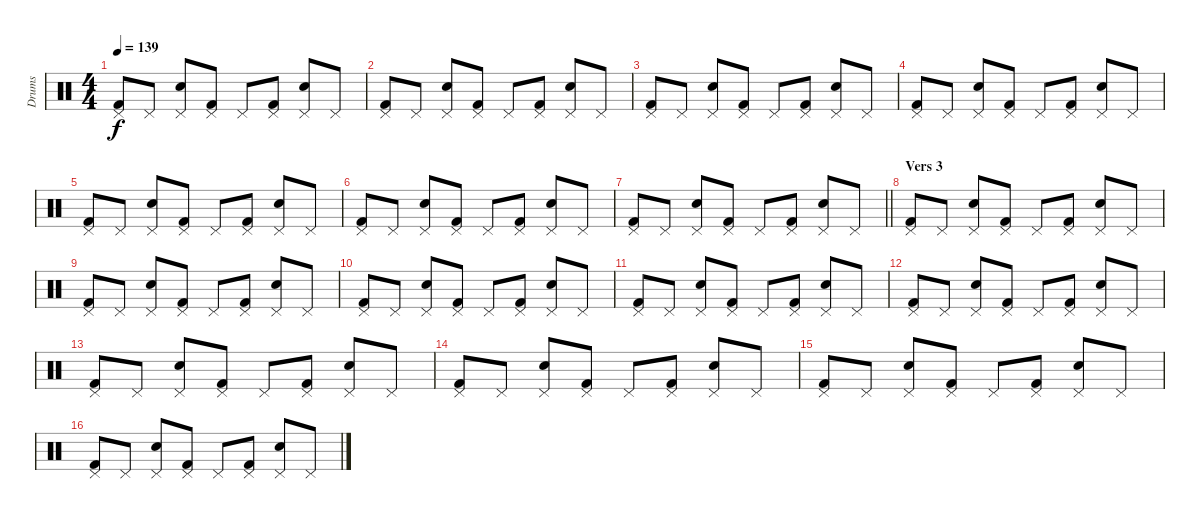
\track ("Drums" "Drums") {instrument percussion}
\staff {score}
\articulation defaults
\ts (4 4)
\tempo 139
\clef neutral
\ks c
("Pedal Hi-Hat (hit)" "Kick (hit) 2").8{dy f} "Pedal Hi-Hat (hit)".8 ("Pedal Hi-Hat (hit)" "Snare (hit) 2").8 ("Pedal Hi-Hat (hit)" "Kick (hit) 2").8 "Pedal Hi-Hat (hit)".8 ("Pedal Hi-Hat (hit)" "Kick (hit) 2").8 ("Pedal Hi-Hat (hit)" "Snare (hit) 2").8 "Pedal Hi-Hat (hit)".8 |
("Pedal Hi-Hat (hit)" "Kick (hit) 2").8 "Pedal Hi-Hat (hit)".8 ("Pedal Hi-Hat (hit)" "Snare (hit) 2").8 ("Pedal Hi-Hat (hit)" "Kick (hit) 2").8 "Pedal Hi-Hat (hit)".8 ("Pedal Hi-Hat (hit)" "Kick (hit) 2").8 ("Pedal Hi-Hat (hit)" "Snare (hit) 2").8 "Pedal Hi-Hat (hit)".8 |
("Pedal Hi-Hat (hit)" "Kick (hit) 2").8 "Pedal Hi-Hat (hit)".8 ("Pedal Hi-Hat (hit)" "Snare (hit) 2").8 ("Pedal Hi-Hat (hit)" "Kick (hit) 2").8 "Pedal Hi-Hat (hit)".8 ("Pedal Hi-Hat (hit)" "Kick (hit) 2").8 ("Pedal Hi-Hat (hit)" "Snare (hit) 2").8 "Pedal Hi-Hat (hit)".8 |
("Pedal Hi-Hat (hit)" "Kick (hit) 2").8 "Pedal Hi-Hat (hit)".8 ("Pedal Hi-Hat (hit)" "Snare (hit) 2").8 ("Pedal Hi-Hat (hit)" "Kick (hit) 2").8 "Pedal Hi-Hat (hit)".8 ("Pedal Hi-Hat (hit)" "Kick (hit) 2").8 ("Pedal Hi-Hat (hit)" "Snare (hit) 2").8 "Pedal Hi-Hat (hit)".8 |
("Pedal Hi-Hat (hit)" "Kick (hit) 2").8 "Pedal Hi-Hat (hit)".8 ("Pedal Hi-Hat (hit)" "Snare (hit) 2").8 ("Pedal Hi-Hat (hit)" "Kick (hit) 2").8 "Pedal Hi-Hat (hit)".8 ("Pedal Hi-Hat (hit)" "Kick (hit) 2").8 ("Pedal Hi-Hat (hit)" "Snare (hit) 2").8 "Pedal Hi-Hat (hit)".8 |
("Pedal Hi-Hat (hit)" "Kick (hit) 2").8 "Pedal Hi-Hat (hit)".8 ("Pedal Hi-Hat (hit)" "Snare (hit) 2").8 ("Pedal Hi-Hat (hit)" "Kick (hit) 2").8 "Pedal Hi-Hat (hit)".8 ("Pedal Hi-Hat (hit)" "Kick (hit) 2").8 ("Pedal Hi-Hat (hit)" "Snare (hit) 2").8 "Pedal Hi-Hat (hit)".8 |
\barLineRight lightlight
("Pedal Hi-Hat (hit)" "Kick (hit) 2").8 "Pedal Hi-Hat (hit)".8 ("Pedal Hi-Hat (hit)" "Snare (hit) 2").8 ("Pedal Hi-Hat (hit)" "Kick (hit) 2").8 "Pedal Hi-Hat (hit)".8 ("Pedal Hi-Hat (hit)" "Kick (hit) 2").8 ("Pedal Hi-Hat (hit)" "Snare (hit) 2").8 "Pedal Hi-Hat (hit)".8 |
\section ("" "Vers 3")
("Pedal Hi-Hat (hit)" "Kick (hit) 2").8 "Pedal Hi-Hat (hit)".8 ("Pedal Hi-Hat (hit)" "Snare (hit) 2").8 ("Pedal Hi-Hat (hit)" "Kick (hit) 2").8 "Pedal Hi-Hat (hit)".8 ("Pedal Hi-Hat (hit)" "Kick (hit) 2").8 ("Pedal Hi-Hat (hit)" "Snare (hit) 2").8 "Pedal Hi-Hat (hit)".8 |
("Pedal Hi-Hat (hit)" "Kick (hit) 2").8 "Pedal Hi-Hat (hit)".8 ("Pedal Hi-Hat (hit)" "Snare (hit) 2").8 ("Pedal Hi-Hat (hit)" "Kick (hit) 2").8 "Pedal Hi-Hat (hit)".8 ("Pedal Hi-Hat (hit)" "Kick (hit) 2").8 ("Pedal Hi-Hat (hit)" "Snare (hit) 2").8 "Pedal Hi-Hat (hit)".8 |
("Pedal Hi-Hat (hit)" "Kick (hit) 2").8 "Pedal Hi-Hat (hit)".8 ("Pedal Hi-Hat (hit)" "Snare (hit) 2").8 ("Pedal Hi-Hat (hit)" "Kick (hit) 2").8 "Pedal Hi-Hat (hit)".8 ("Pedal Hi-Hat (hit)" "Kick (hit) 2").8 ("Pedal Hi-Hat (hit)" "Snare (hit) 2").8 "Pedal Hi-Hat (hit)".8 |
("Pedal Hi-Hat (hit)" "Kick (hit) 2").8 "Pedal Hi-Hat (hit)".8 ("Pedal Hi-Hat (hit)" "Snare (hit) 2").8 ("Pedal Hi-Hat (hit)" "Kick (hit) 2").8 "Pedal Hi-Hat (hit)".8 ("Pedal Hi-Hat (hit)" "Kick (hit) 2").8 ("Pedal Hi-Hat (hit)" "Snare (hit) 2").8 "Pedal Hi-Hat (hit)".8 |
("Pedal Hi-Hat (hit)" "Kick (hit) 2").8 "Pedal Hi-Hat (hit)".8 ("Pedal Hi-Hat (hit)" "Snare (hit) 2").8 ("Pedal Hi-Hat (hit)" "Kick (hit) 2").8 "Pedal Hi-Hat (hit)".8 ("Pedal Hi-Hat (hit)" "Kick (hit) 2").8 ("Pedal Hi-Hat (hit)" "Snare (hit) 2").8 "Pedal Hi-Hat (hit)".8 |
("Pedal Hi-Hat (hit)" "Kick (hit) 2").8 "Pedal Hi-Hat (hit)".8 ("Pedal Hi-Hat (hit)" "Snare (hit) 2").8 ("Pedal Hi-Hat (hit)" "Kick (hit) 2").8 "Pedal Hi-Hat (hit)".8 ("Pedal Hi-Hat (hit)" "Kick (hit) 2").8 ("Pedal Hi-Hat (hit)" "Snare (hit) 2").8 "Pedal Hi-Hat (hit)".8 |
("Pedal Hi-Hat (hit)" "Kick (hit) 2").8 "Pedal Hi-Hat (hit)".8 ("Pedal Hi-Hat (hit)" "Snare (hit) 2").8 ("Pedal Hi-Hat (hit)" "Kick (hit) 2").8 "Pedal Hi-Hat (hit)".8 ("Pedal Hi-Hat (hit)" "Kick (hit) 2").8 ("Pedal Hi-Hat (hit)" "Snare (hit) 2").8 "Pedal Hi-Hat (hit)".8 |
("Pedal Hi-Hat (hit)" "Kick (hit) 2").8 "Pedal Hi-Hat (hit)".8 ("Pedal Hi-Hat (hit)" "Snare (hit) 2").8 ("Pedal Hi-Hat (hit)" "Kick (hit) 2").8 "Pedal Hi-Hat (hit)".8 ("Pedal Hi-Hat (hit)" "Kick (hit) 2").8 ("Pedal Hi-Hat (hit)" "Snare (hit) 2").8 "Pedal Hi-Hat (hit)".8 |
("Pedal Hi-Hat (hit)" "Kick (hit) 2").8 "Pedal Hi-Hat (hit)".8 ("Pedal Hi-Hat (hit)" "Snare (hit) 2").8 ("Pedal Hi-Hat (hit)" "Kick (hit) 2").8 "Pedal Hi-Hat (hit)".8 ("Pedal Hi-Hat (hit)" "Kick (hit) 2").8 ("Pedal Hi-Hat (hit)" "Snare (hit) 2").8 "Pedal Hi-Hat (hit)".8
